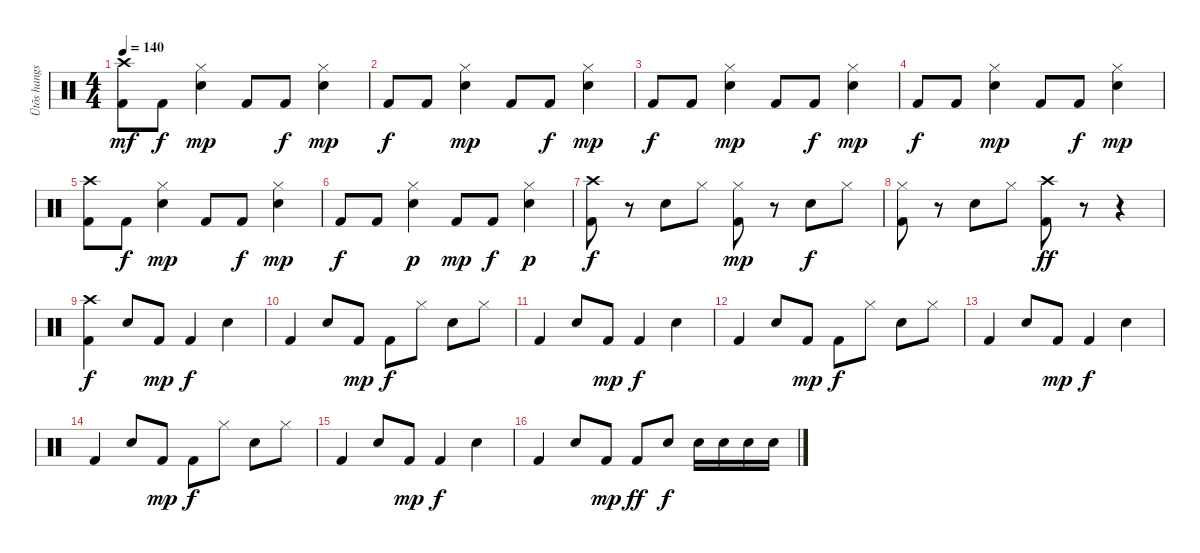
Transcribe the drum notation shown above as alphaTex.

\track ("Ütõs hangszer" "Ütõs hangs") {instrument percussion}
\staff {score}
\articulation defaults
\ts (4 4)
\tempo 140
\clef neutral
\ks c
("Kick (hit) 2" "Crash high (hit)").8{dy mf} "Kick (hit) 2".8{dy f} ("Electric Snare (hit)" "Hi-Hat (closed)").4{dy mp} "Kick (hit) 2".8 "Kick (hit) 2".8{dy f} ("Electric Snare (hit)" "Hi-Hat (closed)").4{dy mp} |
"Kick (hit) 2".8{dy f} "Kick (hit) 2".8 ("Electric Snare (hit)" "Hi-Hat (closed)").4{dy mp} "Kick (hit) 2".8 "Kick (hit) 2".8{dy f} ("Electric Snare (hit)" "Hi-Hat (closed)").4{dy mp} |
"Kick (hit) 2".8{dy f} "Kick (hit) 2".8 ("Electric Snare (hit)" "Hi-Hat (closed)").4{dy mp} "Kick (hit) 2".8 "Kick (hit) 2".8{dy f} ("Electric Snare (hit)" "Hi-Hat (closed)").4{dy mp} |
"Kick (hit) 2".8{dy f} "Kick (hit) 2".8 ("Electric Snare (hit)" "Hi-Hat (closed)").4{dy mp} "Kick (hit) 2".8 "Kick (hit) 2".8{dy f} ("Electric Snare (hit)" "Hi-Hat (closed)").4{dy mp} |
("Kick (hit) 2" "Crash high (hit)").8 "Kick (hit) 2".8{dy f} ("Electric Snare (hit)" "Hi-Hat (closed)").4{dy mp} "Kick (hit) 2".8 "Kick (hit) 2".8{dy f} ("Electric Snare (hit)" "Hi-Hat (closed)").4{dy mp} |
"Kick (hit) 2".8{dy f} "Kick (hit) 2".8 ("Electric Snare (hit)" "Hi-Hat (closed)").4{dy p} "Kick (hit) 2".8{dy mp} "Kick (hit) 2".8{dy f} ("Electric Snare (hit)" "Hi-Hat (closed)").4{dy p} |
("Kick (hit) 2" "Crash high (hit)").8{dy f} r.8 "Electric Snare (hit)".8 "Hi-Hat (closed)".8 ("Kick (hit) 2" "Hi-Hat (closed)").8{dy mp} r.8 "Electric Snare (hit)".8{dy f} "Hi-Hat (closed)".8 |
("Kick (hit) 2" "Hi-Hat (closed)").8 r.8 "Electric Snare (hit)".8 "Hi-Hat (closed)".8 ("Kick (hit) 2" "Crash high (hit)").8{dy ff} r.8 r.4 |
("Kick (hit) 2" "Crash high (hit)").4{dy f} "Electric Snare (hit)".8 "Kick (hit) 2".8{dy mp} "Kick (hit) 2".4{dy f} "Electric Snare (hit)".4 |
"Kick (hit) 2".4 "Electric Snare (hit)".8 "Kick (hit) 2".8{dy mp} "Kick (hit) 2".8{dy f} "Hi-Hat (closed)".8 "Electric Snare (hit)".8 "Hi-Hat (closed)".8 |
"Kick (hit) 2".4 "Electric Snare (hit)".8 "Kick (hit) 2".8{dy mp} "Kick (hit) 2".4{dy f} "Electric Snare (hit)".4 |
"Kick (hit) 2".4 "Electric Snare (hit)".8 "Kick (hit) 2".8{dy mp} "Kick (hit) 2".8{dy f} "Hi-Hat (closed)".8 "Electric Snare (hit)".8 "Hi-Hat (closed)".8 |
"Kick (hit) 2".4 "Electric Snare (hit)".8 "Kick (hit) 2".8{dy mp} "Kick (hit) 2".4{dy f} "Electric Snare (hit)".4 |
"Kick (hit) 2".4 "Electric Snare (hit)".8 "Kick (hit) 2".8{dy mp} "Kick (hit) 2".8{dy f} "Hi-Hat (closed)".8 "Electric Snare (hit)".8 "Hi-Hat (closed)".8 |
"Kick (hit) 2".4 "Electric Snare (hit)".8 "Kick (hit) 2".8{dy mp} "Kick (hit) 2".4{dy f} "Electric Snare (hit)".4 |
"Kick (hit) 2".4 "Electric Snare (hit)".8 "Kick (hit) 2".8{dy mp} "Kick (hit) 2".8{dy ff} "Electric Snare (hit)".8{dy f} "Electric Snare (hit)".16 "Electric Snare (hit)".16 "Electric Snare (hit)".16 "Electric Snare (hit)".16
